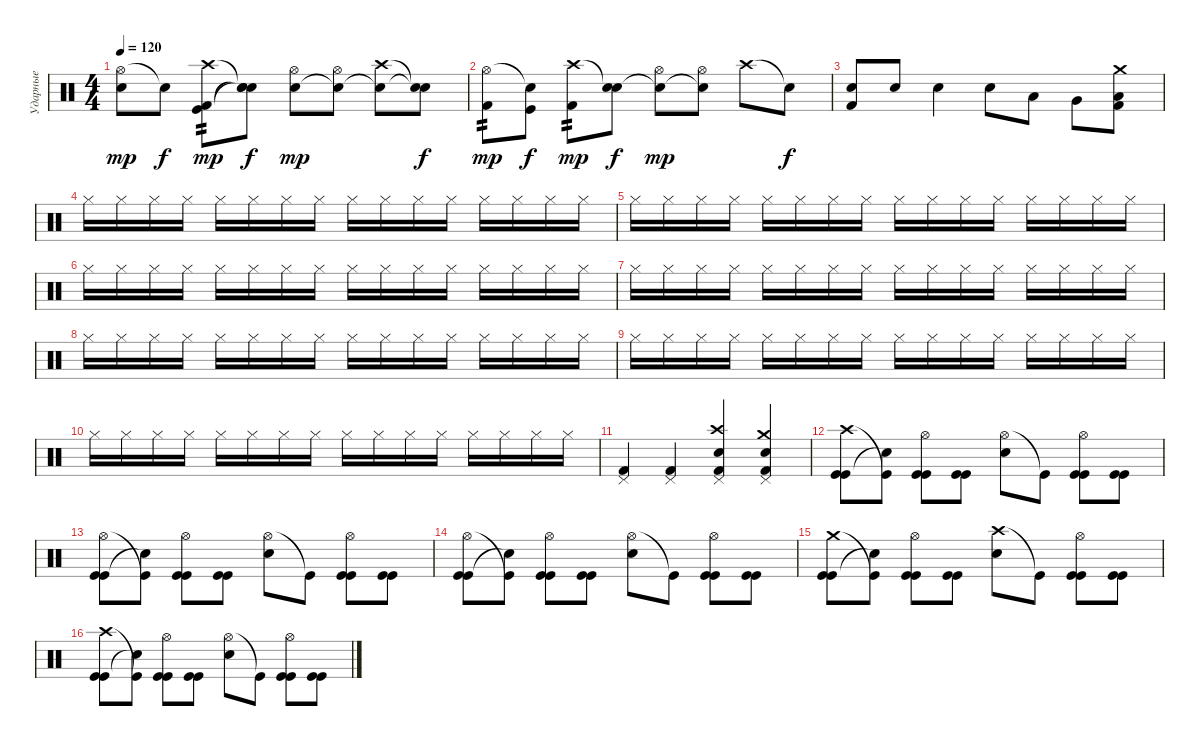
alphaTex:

\track ("Ударные" "Ударные") {instrument percussion}
\staff {score}
\articulation defaults
\ts (4 4)
\tempo 120
\clef neutral
\ks c
("Hi-Hat (open)" "Snare (hit)"{t}).8{dy mp} "Snare (hit)"{t}.8{dy f} ("Crash high (hit)" "Kick (hit) 2" "Kick (hit)").8{tp 2 dy mp} ("Snare (hit)"{t} "Snare (hit)"{t} "Snare (hit)"{t}).8{dy f} ("Hi-Hat (open)" "Snare (hit) 2").8{dy mp} ("Hi-Hat (open)" "Snare (hit)"{t}).8 ("Crash high (hit)" "Snare (hit)"{t}).8 ("Snare (hit)"{t} "Snare (hit)"{t}).8{dy f} |
("Hi-Hat (open)" "Kick (hit) 2").8{tp 2 dy mp} ("Snare (hit)"{t} "Kick (hit)").8{dy f} ("Crash high (hit)" "Kick (hit) 2").8{tp 2 dy mp} ("Snare (hit)"{t} "Snare (hit) 2").8{dy f} ("Hi-Hat (open)" "Snare (hit)"{t}).8{dy mp} ("Hi-Hat (open)" "Snare (hit)"{t}).8 "Crash high (hit)".8 "Snare (hit)"{t}.8{dy f} |
("Kick (hit) 2" "Snare (hit) 2").8 "Snare (hit) 2".8 "Snare (hit) 2".4 "Snare (hit) 2".8 "Low Floor Tom (hit)".8 "Very Low Tom (hit)".8 ("Kick (hit) 2" "Low Tom (hit)" "Crash medium (hit)").8 |
"Hi-Hat (closed)".16 "Hi-Hat (closed)".16 "Hi-Hat (closed)".16 "Hi-Hat (closed)".16 "Hi-Hat (closed)".16 "Hi-Hat (closed)".16 "Hi-Hat (closed)".16 "Hi-Hat (closed)".16 "Hi-Hat (closed)".16 "Hi-Hat (closed)".16 "Hi-Hat (closed)".16 "Hi-Hat (closed)".16 "Hi-Hat (closed)".16 "Hi-Hat (closed)".16 "Hi-Hat (closed)".16 "Hi-Hat (closed)".16 |
"Hi-Hat (closed)".16 "Hi-Hat (closed)".16 "Hi-Hat (closed)".16 "Hi-Hat (closed)".16 "Hi-Hat (closed)".16 "Hi-Hat (closed)".16 "Hi-Hat (closed)".16 "Hi-Hat (closed)".16 "Hi-Hat (closed)".16 "Hi-Hat (closed)".16 "Hi-Hat (closed)".16 "Hi-Hat (closed)".16 "Hi-Hat (closed)".16 "Hi-Hat (closed)".16 "Hi-Hat (closed)".16 "Hi-Hat (closed)".16 |
"Hi-Hat (closed)".16 "Hi-Hat (closed)".16 "Hi-Hat (closed)".16 "Hi-Hat (closed)".16 "Hi-Hat (closed)".16 "Hi-Hat (closed)".16 "Hi-Hat (closed)".16 "Hi-Hat (closed)".16 "Hi-Hat (closed)".16 "Hi-Hat (closed)".16 "Hi-Hat (closed)".16 "Hi-Hat (closed)".16 "Hi-Hat (closed)".16 "Hi-Hat (closed)".16 "Hi-Hat (closed)".16 "Hi-Hat (closed)".16 |
"Hi-Hat (closed)".16 "Hi-Hat (closed)".16 "Hi-Hat (closed)".16 "Hi-Hat (closed)".16 "Hi-Hat (closed)".16 "Hi-Hat (closed)".16 "Hi-Hat (closed)".16 "Hi-Hat (closed)".16 "Hi-Hat (closed)".16 "Hi-Hat (closed)".16 "Hi-Hat (closed)".16 "Hi-Hat (closed)".16 "Hi-Hat (closed)".16 "Hi-Hat (closed)".16 "Hi-Hat (closed)".16 "Hi-Hat (closed)".16 |
"Hi-Hat (closed)".16 "Hi-Hat (closed)".16 "Hi-Hat (closed)".16 "Hi-Hat (closed)".16 "Hi-Hat (closed)".16 "Hi-Hat (closed)".16 "Hi-Hat (closed)".16 "Hi-Hat (closed)".16 "Hi-Hat (closed)".16 "Hi-Hat (closed)".16 "Hi-Hat (closed)".16 "Hi-Hat (closed)".16 "Hi-Hat (closed)".16 "Hi-Hat (closed)".16 "Hi-Hat (closed)".16 "Hi-Hat (closed)".16 |
"Hi-Hat (closed)".16 "Hi-Hat (closed)".16 "Hi-Hat (closed)".16 "Hi-Hat (closed)".16 "Hi-Hat (closed)".16 "Hi-Hat (closed)".16 "Hi-Hat (closed)".16 "Hi-Hat (closed)".16 "Hi-Hat (closed)".16 "Hi-Hat (closed)".16 "Hi-Hat (closed)".16 "Hi-Hat (closed)".16 "Hi-Hat (closed)".16 "Hi-Hat (closed)".16 "Hi-Hat (closed)".16 "Hi-Hat (closed)".16 |
"Hi-Hat (closed)".16 "Hi-Hat (closed)".16 "Hi-Hat (closed)".16 "Hi-Hat (closed)".16 "Hi-Hat (closed)".16 "Hi-Hat (closed)".16 "Hi-Hat (closed)".16 "Hi-Hat (closed)".16 "Hi-Hat (closed)".16 "Hi-Hat (closed)".16 "Hi-Hat (closed)".16 "Hi-Hat (closed)".16 "Hi-Hat (closed)".16 "Hi-Hat (closed)".16 "Hi-Hat (closed)".16 "Hi-Hat (closed)".16 |
("Pedal Hi-Hat (hit)" "Kick (hit) 2").4 ("Pedal Hi-Hat (hit)" "Kick (hit) 2").4 ("Crash high (hit)" "Pedal Hi-Hat (hit)" "Snare (hit) 2" "Kick (hit) 2").4 ("Crash medium (hit)" "Pedal Hi-Hat (hit)" "Snare (hit) 2" "Kick (hit) 2").4 |
("Crash high (hit)" "Kick (hit)" "Kick (hit)").8 ("Kick (hit)"{t} "Snare (hit)"{t}).8 ("Hi-Hat (open)" "Kick (hit)" "Kick (hit)").8 ("Kick (hit)" "Kick (hit)").8 ("Hi-Hat (open)" "Snare (hit) 2").8 "Kick (hit)"{t}.8 ("Hi-Hat (open)" "Kick (hit)" "Kick (hit)").8 ("Kick (hit)" "Kick (hit)").8 |
("Hi-Hat (open)" "Kick (hit)" "Kick (hit)").8 ("Kick (hit)"{t} "Snare (hit)"{t}).8 ("Hi-Hat (open)" "Kick (hit)" "Kick (hit)").8 ("Kick (hit)" "Kick (hit)").8 ("Hi-Hat (open)" "Snare (hit) 2").8 "Kick (hit)"{t}.8 ("Hi-Hat (open)" "Kick (hit)" "Kick (hit)").8 ("Kick (hit)" "Kick (hit)").8 |
("Hi-Hat (open)" "Kick (hit)" "Kick (hit)").8 ("Kick (hit)"{t} "Snare (hit)"{t}).8 ("Hi-Hat (open)" "Kick (hit)" "Kick (hit)").8 ("Kick (hit)" "Kick (hit)").8 ("Hi-Hat (open)" "Snare (hit) 2").8 "Kick (hit)"{t}.8 ("Hi-Hat (open)" "Kick (hit)" "Kick (hit)").8 ("Kick (hit)" "Kick (hit)").8 |
("Crash medium (hit)" "Kick (hit)" "Kick (hit)").8 ("Kick (hit)"{t} "Snare (hit)"{t}).8 ("Hi-Hat (open)" "Kick (hit)" "Kick (hit)").8 ("Kick (hit)" "Kick (hit)").8 ("Crash high (hit)" "Snare (hit) 2").8 "Kick (hit)"{t}.8 ("Hi-Hat (open)" "Kick (hit)" "Kick (hit)").8 ("Kick (hit)" "Kick (hit)").8 |
("Crash high (hit)" "Kick (hit)" "Kick (hit)").8 ("Kick (hit)"{t} "Snare (hit)"{t}).8 ("Hi-Hat (open)" "Kick (hit)" "Kick (hit)").8 ("Kick (hit)" "Kick (hit)").8 ("Hi-Hat (open)" "Snare (hit) 2").8 "Kick (hit)"{t}.8 ("Hi-Hat (open)" "Kick (hit)" "Kick (hit)").8 ("Kick (hit)" "Kick (hit)").8
